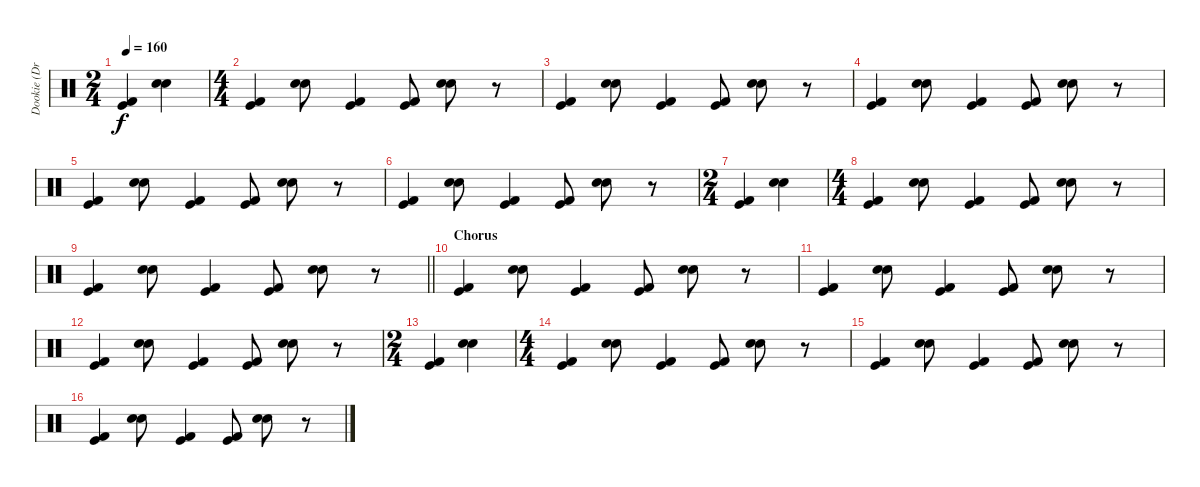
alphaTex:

\track ("Dookie (Drums)" "Dookie (Dr") {instrument percussion}
\staff {score}
\articulation defaults
\ts (2 4)
\tempo 160
\clef neutral
\ks c
("Kick (hit) 2" "Kick (hit)").4{dy f} ("Electric Snare (hit)" "Electric Snare (hit)").4 |
\ts (4 4)
("Kick (hit) 2" "Kick (hit)").4 ("Electric Snare (hit)" "Electric Snare (hit)").8 ("Kick (hit) 2" "Kick (hit)").4 ("Kick (hit) 2" "Kick (hit)").8 ("Electric Snare (hit)" "Electric Snare (hit)").8 r.8 |
("Kick (hit) 2" "Kick (hit)").4 ("Electric Snare (hit)" "Electric Snare (hit)").8 ("Kick (hit) 2" "Kick (hit)").4 ("Kick (hit) 2" "Kick (hit)").8 ("Electric Snare (hit)" "Electric Snare (hit)").8 r.8 |
("Kick (hit) 2" "Kick (hit)").4 ("Electric Snare (hit)" "Electric Snare (hit)").8 ("Kick (hit) 2" "Kick (hit)").4 ("Kick (hit) 2" "Kick (hit)").8 ("Electric Snare (hit)" "Electric Snare (hit)").8 r.8 |
("Kick (hit) 2" "Kick (hit)").4 ("Electric Snare (hit)" "Electric Snare (hit)").8 ("Kick (hit) 2" "Kick (hit)").4 ("Kick (hit) 2" "Kick (hit)").8 ("Electric Snare (hit)" "Electric Snare (hit)").8 r.8 |
("Kick (hit) 2" "Kick (hit)").4 ("Electric Snare (hit)" "Electric Snare (hit)").8 ("Kick (hit) 2" "Kick (hit)").4 ("Kick (hit) 2" "Kick (hit)").8 ("Electric Snare (hit)" "Electric Snare (hit)").8 r.8 |
\ts (2 4)
("Kick (hit) 2" "Kick (hit)").4 ("Electric Snare (hit)" "Electric Snare (hit)").4 |
\ts (4 4)
("Kick (hit) 2" "Kick (hit)").4 ("Electric Snare (hit)" "Electric Snare (hit)").8 ("Kick (hit) 2" "Kick (hit)").4 ("Kick (hit) 2" "Kick (hit)").8 ("Electric Snare (hit)" "Electric Snare (hit)").8 r.8 |
\barLineRight lightlight
("Kick (hit) 2" "Kick (hit)").4 ("Electric Snare (hit)" "Electric Snare (hit)").8 ("Kick (hit) 2" "Kick (hit)").4 ("Kick (hit) 2" "Kick (hit)").8 ("Electric Snare (hit)" "Electric Snare (hit)").8 r.8 |
\section ("" "Chorus")
("Kick (hit) 2" "Kick (hit)").4 ("Electric Snare (hit)" "Electric Snare (hit)").8 ("Kick (hit) 2" "Kick (hit)").4 ("Kick (hit) 2" "Kick (hit)").8 ("Electric Snare (hit)" "Electric Snare (hit)").8 r.8 |
("Kick (hit) 2" "Kick (hit)").4 ("Electric Snare (hit)" "Electric Snare (hit)").8 ("Kick (hit) 2" "Kick (hit)").4 ("Kick (hit) 2" "Kick (hit)").8 ("Electric Snare (hit)" "Electric Snare (hit)").8 r.8 |
("Kick (hit) 2" "Kick (hit)").4 ("Electric Snare (hit)" "Electric Snare (hit)").8 ("Kick (hit) 2" "Kick (hit)").4 ("Kick (hit) 2" "Kick (hit)").8 ("Electric Snare (hit)" "Electric Snare (hit)").8 r.8 |
\ts (2 4)
("Kick (hit) 2" "Kick (hit)").4 ("Electric Snare (hit)" "Electric Snare (hit)").4 |
\ts (4 4)
("Kick (hit) 2" "Kick (hit)").4 ("Electric Snare (hit)" "Electric Snare (hit)").8 ("Kick (hit) 2" "Kick (hit)").4 ("Kick (hit) 2" "Kick (hit)").8 ("Electric Snare (hit)" "Electric Snare (hit)").8 r.8 |
("Kick (hit) 2" "Kick (hit)").4 ("Electric Snare (hit)" "Electric Snare (hit)").8 ("Kick (hit) 2" "Kick (hit)").4 ("Kick (hit) 2" "Kick (hit)").8 ("Electric Snare (hit)" "Electric Snare (hit)").8 r.8 |
("Kick (hit) 2" "Kick (hit)").4 ("Electric Snare (hit)" "Electric Snare (hit)").8 ("Kick (hit) 2" "Kick (hit)").4 ("Kick (hit) 2" "Kick (hit)").8 ("Electric Snare (hit)" "Electric Snare (hit)").8 r.8
